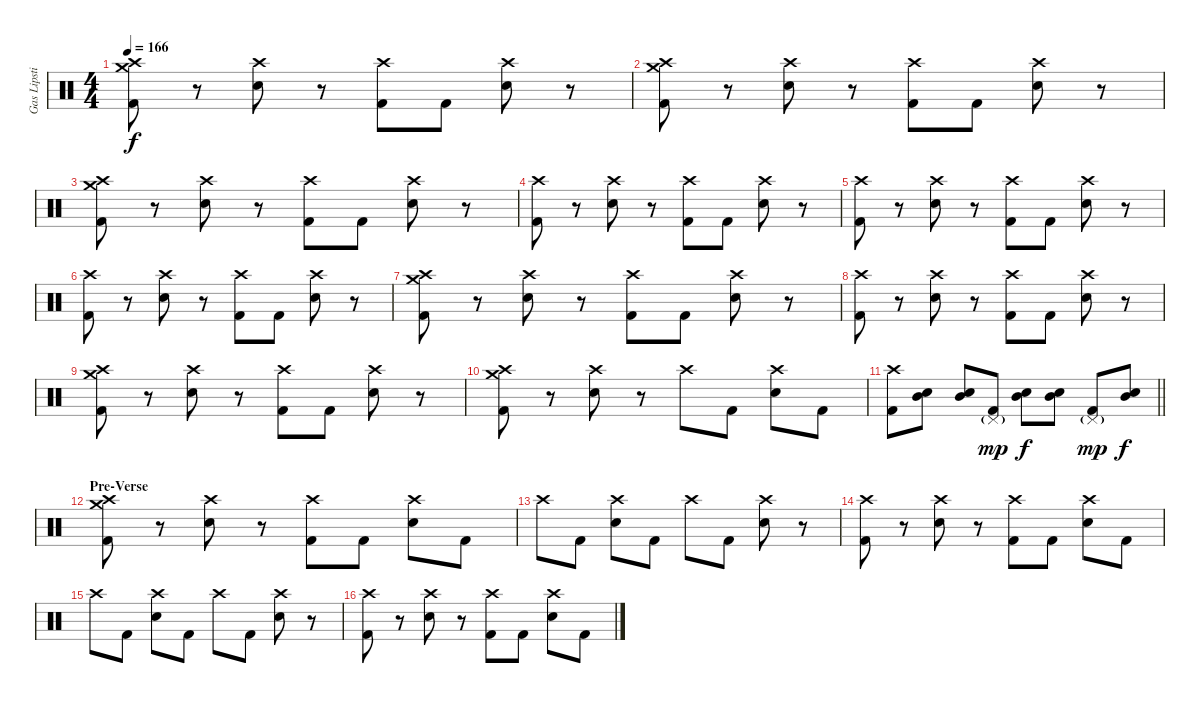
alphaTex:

\track ("Gas Lipstick (Drums)" "Gas Lipsti") {instrument percussion}
\staff {score}
\articulation defaults
\ts (4 4)
\tempo 166
\clef neutral
\ks c
("Crash medium (hit)" "Crash high (hit)" "Kick (hit) 2").8{dy f} r.8 ("Crash high (hit)" "Snare (hit) 2").8 r.8 ("Crash high (hit)" "Kick (hit) 2").8 "Kick (hit) 2".8 ("Crash high (hit)" "Snare (hit) 2").8 r.8 |
("Crash medium (hit)" "Crash high (hit)" "Kick (hit) 2").8 r.8 ("Crash high (hit)" "Snare (hit) 2").8 r.8 ("Crash high (hit)" "Kick (hit) 2").8 "Kick (hit) 2".8 ("Crash high (hit)" "Snare (hit) 2").8 r.8 |
("Crash medium (hit)" "Crash high (hit)" "Kick (hit) 2").8 r.8 ("Crash high (hit)" "Snare (hit) 2").8 r.8 ("Crash high (hit)" "Kick (hit) 2").8 "Kick (hit) 2".8 ("Crash high (hit)" "Snare (hit) 2").8 r.8 |
("Crash high (hit)" "Kick (hit) 2").8 r.8 ("Crash high (hit)" "Snare (hit) 2").8 r.8 ("Crash high (hit)" "Kick (hit) 2").8 "Kick (hit) 2".8 ("Crash high (hit)" "Snare (hit) 2").8 r.8 |
("Crash high (hit)" "Kick (hit) 2").8 r.8 ("Crash high (hit)" "Snare (hit) 2").8 r.8 ("Crash high (hit)" "Kick (hit) 2").8 "Kick (hit) 2".8 ("Crash high (hit)" "Snare (hit) 2").8 r.8 |
("Crash high (hit)" "Kick (hit) 2").8 r.8 ("Crash high (hit)" "Snare (hit) 2").8 r.8 ("Crash high (hit)" "Kick (hit) 2").8 "Kick (hit) 2".8 ("Crash high (hit)" "Snare (hit) 2").8 r.8 |
("Crash medium (hit)" "Crash high (hit)" "Kick (hit) 2").8 r.8 ("Crash high (hit)" "Snare (hit) 2").8 r.8 ("Crash high (hit)" "Kick (hit) 2").8 "Kick (hit) 2".8 ("Crash high (hit)" "Snare (hit) 2").8 r.8 |
("Crash high (hit)" "Kick (hit) 2").8 r.8 ("Crash high (hit)" "Snare (hit) 2").8 r.8 ("Crash high (hit)" "Kick (hit) 2").8 "Kick (hit) 2".8 ("Crash high (hit)" "Snare (hit) 2").8 r.8 |
("Crash medium (hit)" "Crash high (hit)" "Kick (hit) 2").8 r.8 ("Crash high (hit)" "Snare (hit) 2").8 r.8 ("Crash high (hit)" "Kick (hit) 2").8 "Kick (hit) 2".8 ("Crash high (hit)" "Snare (hit) 2").8 r.8 |
("Crash medium (hit)" "Crash high (hit)" "Kick (hit) 2").8 r.8 ("Crash high (hit)" "Snare (hit) 2").8 r.8 "Crash high (hit)".8 "Kick (hit) 2".8 ("Crash high (hit)" "Snare (hit) 2").8 "Kick (hit) 2".8 |
\barLineRight lightlight
("Crash high (hit)" "Kick (hit) 2").8 ("Mid Tom (hit)" "Snare (hit) 2").8 ("Mid Tom (hit)" "Snare (hit) 2").8 ("Pedal Hi-Hat (hit)"{g} "Kick (hit) 2").8{dy mp} ("Mid Tom (hit)" "Snare (hit) 2").8{dy f} ("Mid Tom (hit)" "Snare (hit) 2").8 ("Pedal Hi-Hat (hit)"{g} "Kick (hit) 2").8{dy mp} ("Mid Tom (hit)" "Snare (hit) 2").8{dy f} |
\section ("" "Pre-Verse")
("Crash medium (hit)" "Crash high (hit)" "Kick (hit) 2").8 r.8 ("Crash high (hit)" "Snare (hit) 2").8 r.8 ("Crash high (hit)" "Kick (hit) 2").8 "Kick (hit) 2".8 ("Crash high (hit)" "Snare (hit) 2").8 "Kick (hit) 2".8 |
"Crash high (hit)".8 "Kick (hit) 2".8 ("Crash high (hit)" "Snare (hit) 2").8 "Kick (hit) 2".8 "Crash high (hit)".8 "Kick (hit) 2".8 ("Crash high (hit)" "Snare (hit) 2").8 r.8 |
("Crash high (hit)" "Kick (hit) 2").8 r.8 ("Crash high (hit)" "Snare (hit) 2").8 r.8 ("Crash high (hit)" "Kick (hit) 2").8 "Kick (hit) 2".8 ("Crash high (hit)" "Snare (hit) 2").8 "Kick (hit) 2".8 |
"Crash high (hit)".8 "Kick (hit) 2".8 ("Crash high (hit)" "Snare (hit) 2").8 "Kick (hit) 2".8 "Crash high (hit)".8 "Kick (hit) 2".8 ("Crash high (hit)" "Snare (hit) 2").8 r.8 |
("Crash high (hit)" "Kick (hit) 2").8 r.8 ("Crash high (hit)" "Snare (hit) 2").8 r.8 ("Crash high (hit)" "Kick (hit) 2").8 "Kick (hit) 2".8 ("Crash high (hit)" "Snare (hit) 2").8 "Kick (hit) 2".8
